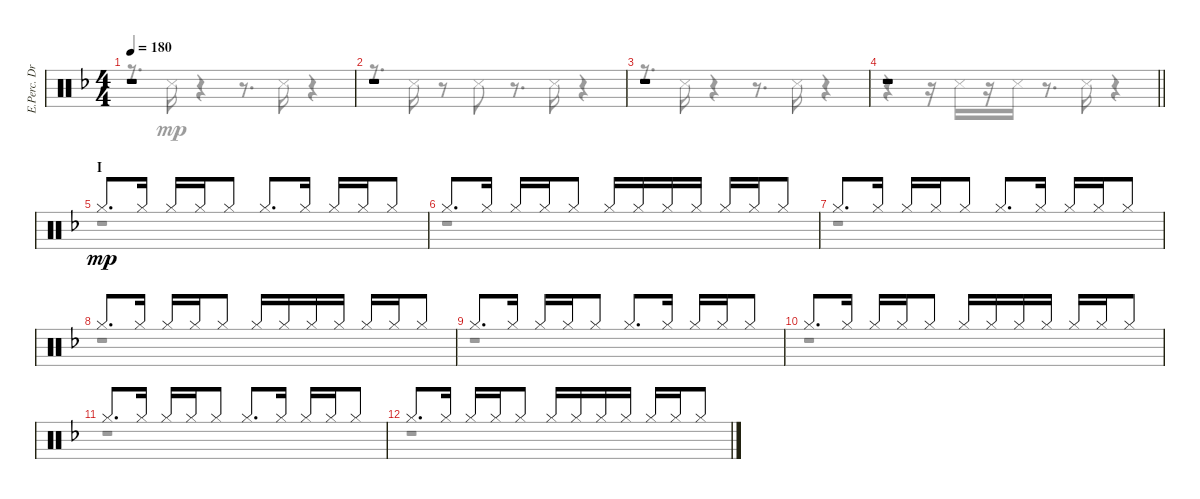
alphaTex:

\track ("E.Perc. Drums" "E.Perc. Dr") {instrument percussion}
\staff {score}
\articulation defaults
\voice
\ts (4 4)
\tempo 180
\clef neutral
\ks f
r.1{dy mp} |
r.1 |
r.1 |
\barLineRight lightlight
r.1 |
\section ("" "I")
"Hi-Hat (closed)".8{d} "Hi-Hat (closed)".16 "Hi-Hat (closed)".16 "Hi-Hat (closed)".16 "Hi-Hat (closed)".8 "Hi-Hat (closed)".8{d} "Hi-Hat (closed)".16 "Hi-Hat (closed)".16 "Hi-Hat (closed)".16 "Hi-Hat (closed)".8 |
"Hi-Hat (closed)".8{d} "Hi-Hat (closed)".16 "Hi-Hat (closed)".16 "Hi-Hat (closed)".16 "Hi-Hat (closed)".8 "Hi-Hat (closed)".16 "Hi-Hat (closed)".16 "Hi-Hat (closed)".16 "Hi-Hat (closed)".16 "Hi-Hat (closed)".16 "Hi-Hat (closed)".16 "Hi-Hat (closed)".8 |
"Hi-Hat (closed)".8{d} "Hi-Hat (closed)".16 "Hi-Hat (closed)".16 "Hi-Hat (closed)".16 "Hi-Hat (closed)".8 "Hi-Hat (closed)".8{d} "Hi-Hat (closed)".16 "Hi-Hat (closed)".16 "Hi-Hat (closed)".16 "Hi-Hat (closed)".8 |
"Hi-Hat (closed)".8{d} "Hi-Hat (closed)".16 "Hi-Hat (closed)".16 "Hi-Hat (closed)".16 "Hi-Hat (closed)".8 "Hi-Hat (closed)".16 "Hi-Hat (closed)".16 "Hi-Hat (closed)".16 "Hi-Hat (closed)".16 "Hi-Hat (closed)".16 "Hi-Hat (closed)".16 "Hi-Hat (closed)".8 |
"Hi-Hat (closed)".8{d} "Hi-Hat (closed)".16 "Hi-Hat (closed)".16 "Hi-Hat (closed)".16 "Hi-Hat (closed)".8 "Hi-Hat (closed)".8{d} "Hi-Hat (closed)".16 "Hi-Hat (closed)".16 "Hi-Hat (closed)".16 "Hi-Hat (closed)".8 |
"Hi-Hat (closed)".8{d} "Hi-Hat (closed)".16 "Hi-Hat (closed)".16 "Hi-Hat (closed)".16 "Hi-Hat (closed)".8 "Hi-Hat (closed)".16 "Hi-Hat (closed)".16 "Hi-Hat (closed)".16 "Hi-Hat (closed)".16 "Hi-Hat (closed)".16 "Hi-Hat (closed)".16 "Hi-Hat (closed)".8 |
"Hi-Hat (closed)".8{d} "Hi-Hat (closed)".16 "Hi-Hat (closed)".16 "Hi-Hat (closed)".16 "Hi-Hat (closed)".8 "Hi-Hat (closed)".8{d} "Hi-Hat (closed)".16 "Hi-Hat (closed)".16 "Hi-Hat (closed)".16 "Hi-Hat (closed)".8 |
"Hi-Hat (closed)".8{d} "Hi-Hat (closed)".16 "Hi-Hat (closed)".16 "Hi-Hat (closed)".16 "Hi-Hat (closed)".8 "Hi-Hat (closed)".16 "Hi-Hat (closed)".16 "Hi-Hat (closed)".16 "Hi-Hat (closed)".16 "Hi-Hat (closed)".16 "Hi-Hat (closed)".16 "Hi-Hat (closed)".8
\voice
\clef neutral
\ottava regular
\simile none
\ks f
r.8{d dy mp} "Snare (side stick) 3".16 r.4 r.8{d} "Snare (side stick) 3".16 r.4 |
r.8{d} "Snare (side stick) 3".16 r.8 "Snare (side stick) 3".8 r.8{d} "Snare (side stick) 3".16 r.4 |
r.8{d} "Snare (side stick) 3".16 r.4 r.8{d} "Snare (side stick) 3".16 r.4 |
\barLineRight lightlight
r.4 r.16 "Snare (side stick) 3".16 r.16 "Snare (side stick) 3".16 r.8{d} "Snare (side stick) 3".16 r.4 |
r.1 |
r.1 |
r.1 |
r.1 |
r.1 |
r.1 |
r.1 |
r.1
